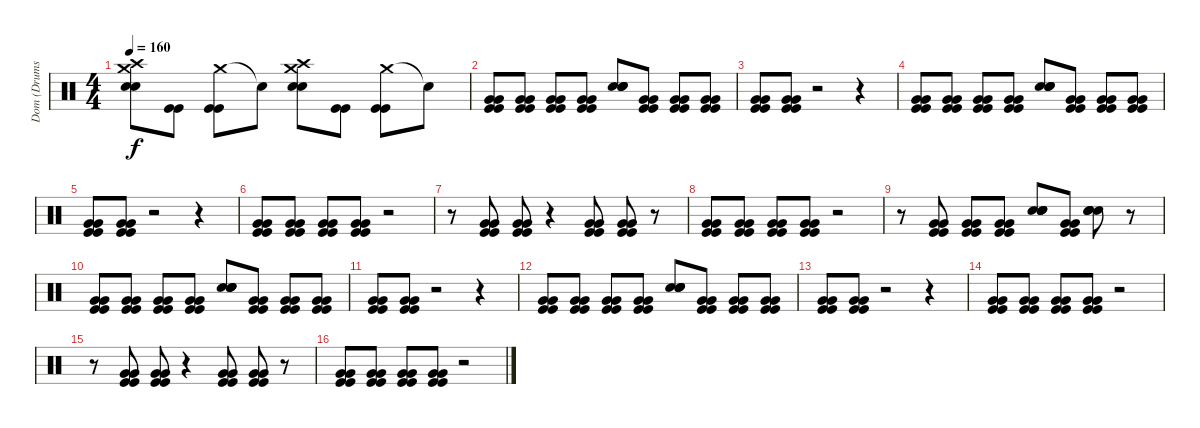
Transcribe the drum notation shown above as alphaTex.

\track ("Dom (Drums)" "Dom (Drums") {instrument percussion}
\staff {score}
\articulation defaults
\ts (4 4)
\tempo 160
\clef neutral
\ks c
("Crash medium (hit)" "Crash high (hit)" "Snare (hit) 2" "Snare (hit) 2").8{dy f} ("Kick (hit)" "Kick (hit)").8 ("Crash medium (hit)" "Kick (hit)" "Kick (hit)").8 "Snare (hit)"{t}.8 ("Crash medium (hit)" "Crash high (hit)" "Snare (hit) 2" "Snare (hit) 2").8 ("Kick (hit)" "Kick (hit)").8 ("Crash medium (hit)" "Kick (hit)" "Kick (hit)").8 "Snare (hit)"{t}.8 |
("Very Low Tom (hit)" "Very Low Tom (hit)" "Kick (hit)" "Kick (hit)").8{volume 10} ("Very Low Tom (hit)" "Very Low Tom (hit)" "Kick (hit)" "Kick (hit)").8 ("Very Low Tom (hit)" "Very Low Tom (hit)" "Kick (hit)" "Kick (hit)").8 ("Very Low Tom (hit)" "Very Low Tom (hit)" "Kick (hit)" "Kick (hit)").8 ("Snare (hit) 2" "Snare (hit) 2" "Snare (hit) 2" "Snare (hit) 2").8 ("Very Low Tom (hit)" "Very Low Tom (hit)" "Kick (hit)" "Kick (hit)").8 ("Very Low Tom (hit)" "Very Low Tom (hit)" "Kick (hit)" "Kick (hit)").8 ("Very Low Tom (hit)" "Very Low Tom (hit)" "Kick (hit)" "Kick (hit)").8 |
("Very Low Tom (hit)" "Very Low Tom (hit)" "Kick (hit)" "Kick (hit)").8 ("Very Low Tom (hit)" "Very Low Tom (hit)" "Kick (hit)" "Kick (hit)").8 r.2 r.4 |
("Very Low Tom (hit)" "Very Low Tom (hit)" "Kick (hit)" "Kick (hit)").8 ("Very Low Tom (hit)" "Very Low Tom (hit)" "Kick (hit)" "Kick (hit)").8 ("Very Low Tom (hit)" "Very Low Tom (hit)" "Kick (hit)" "Kick (hit)").8 ("Very Low Tom (hit)" "Very Low Tom (hit)" "Kick (hit)" "Kick (hit)").8 ("Snare (hit) 2" "Snare (hit) 2" "Snare (hit) 2" "Snare (hit) 2").8 ("Very Low Tom (hit)" "Very Low Tom (hit)" "Kick (hit)" "Kick (hit)").8 ("Very Low Tom (hit)" "Very Low Tom (hit)" "Kick (hit)" "Kick (hit)").8 ("Very Low Tom (hit)" "Very Low Tom (hit)" "Kick (hit)" "Kick (hit)").8 |
("Very Low Tom (hit)" "Very Low Tom (hit)" "Kick (hit)" "Kick (hit)").8 ("Very Low Tom (hit)" "Very Low Tom (hit)" "Kick (hit)" "Kick (hit)").8 r.2 r.4 |
("Very Low Tom (hit)" "Very Low Tom (hit)" "Kick (hit)" "Kick (hit)").8 ("Very Low Tom (hit)" "Very Low Tom (hit)" "Kick (hit)" "Kick (hit)").8 ("Very Low Tom (hit)" "Very Low Tom (hit)" "Kick (hit)" "Kick (hit)").8 ("Very Low Tom (hit)" "Very Low Tom (hit)" "Kick (hit)" "Kick (hit)").8 r.2 |
r.8 ("Very Low Tom (hit)" "Very Low Tom (hit)" "Kick (hit)" "Kick (hit)").8 ("Very Low Tom (hit)" "Very Low Tom (hit)" "Kick (hit)" "Kick (hit)").8 r.4 ("Very Low Tom (hit)" "Very Low Tom (hit)" "Kick (hit)" "Kick (hit)").8 ("Very Low Tom (hit)" "Very Low Tom (hit)" "Kick (hit)" "Kick (hit)").8 r.8 |
("Very Low Tom (hit)" "Very Low Tom (hit)" "Kick (hit)" "Kick (hit)").8 ("Very Low Tom (hit)" "Very Low Tom (hit)" "Kick (hit)" "Kick (hit)").8 ("Very Low Tom (hit)" "Very Low Tom (hit)" "Kick (hit)" "Kick (hit)").8 ("Very Low Tom (hit)" "Very Low Tom (hit)" "Kick (hit)" "Kick (hit)").8 r.2 |
r.8 ("Very Low Tom (hit)" "Very Low Tom (hit)" "Kick (hit)" "Kick (hit)").8 ("Very Low Tom (hit)" "Very Low Tom (hit)" "Kick (hit)" "Kick (hit)").8 ("Very Low Tom (hit)" "Very Low Tom (hit)" "Kick (hit)" "Kick (hit)").8 ("Snare (hit) 2" "Snare (hit) 2" "Snare (hit) 2" "Snare (hit) 2").8 ("Very Low Tom (hit)" "Very Low Tom (hit)" "Kick (hit)" "Kick (hit)").8 ("Snare (hit) 2" "Snare (hit) 2" "Snare (hit) 2" "Snare (hit) 2").8 r.8 |
("Very Low Tom (hit)" "Very Low Tom (hit)" "Kick (hit)" "Kick (hit)").8{volume 10} ("Very Low Tom (hit)" "Very Low Tom (hit)" "Kick (hit)" "Kick (hit)").8 ("Very Low Tom (hit)" "Very Low Tom (hit)" "Kick (hit)" "Kick (hit)").8 ("Very Low Tom (hit)" "Very Low Tom (hit)" "Kick (hit)" "Kick (hit)").8 ("Snare (hit) 2" "Snare (hit) 2" "Snare (hit) 2" "Snare (hit) 2").8 ("Very Low Tom (hit)" "Very Low Tom (hit)" "Kick (hit)" "Kick (hit)").8 ("Very Low Tom (hit)" "Very Low Tom (hit)" "Kick (hit)" "Kick (hit)").8 ("Very Low Tom (hit)" "Very Low Tom (hit)" "Kick (hit)" "Kick (hit)").8 |
("Very Low Tom (hit)" "Very Low Tom (hit)" "Kick (hit)" "Kick (hit)").8 ("Very Low Tom (hit)" "Very Low Tom (hit)" "Kick (hit)" "Kick (hit)").8 r.2 r.4 |
("Very Low Tom (hit)" "Very Low Tom (hit)" "Kick (hit)" "Kick (hit)").8 ("Very Low Tom (hit)" "Very Low Tom (hit)" "Kick (hit)" "Kick (hit)").8 ("Very Low Tom (hit)" "Very Low Tom (hit)" "Kick (hit)" "Kick (hit)").8 ("Very Low Tom (hit)" "Very Low Tom (hit)" "Kick (hit)" "Kick (hit)").8 ("Snare (hit) 2" "Snare (hit) 2" "Snare (hit) 2" "Snare (hit) 2").8 ("Very Low Tom (hit)" "Very Low Tom (hit)" "Kick (hit)" "Kick (hit)").8 ("Very Low Tom (hit)" "Very Low Tom (hit)" "Kick (hit)" "Kick (hit)").8 ("Very Low Tom (hit)" "Very Low Tom (hit)" "Kick (hit)" "Kick (hit)").8 |
("Very Low Tom (hit)" "Very Low Tom (hit)" "Kick (hit)" "Kick (hit)").8 ("Very Low Tom (hit)" "Very Low Tom (hit)" "Kick (hit)" "Kick (hit)").8 r.2 r.4 |
("Very Low Tom (hit)" "Very Low Tom (hit)" "Kick (hit)" "Kick (hit)").8 ("Very Low Tom (hit)" "Very Low Tom (hit)" "Kick (hit)" "Kick (hit)").8 ("Very Low Tom (hit)" "Very Low Tom (hit)" "Kick (hit)" "Kick (hit)").8 ("Very Low Tom (hit)" "Very Low Tom (hit)" "Kick (hit)" "Kick (hit)").8 r.2 |
r.8 ("Very Low Tom (hit)" "Very Low Tom (hit)" "Kick (hit)" "Kick (hit)").8 ("Very Low Tom (hit)" "Very Low Tom (hit)" "Kick (hit)" "Kick (hit)").8 r.4 ("Very Low Tom (hit)" "Very Low Tom (hit)" "Kick (hit)" "Kick (hit)").8 ("Very Low Tom (hit)" "Very Low Tom (hit)" "Kick (hit)" "Kick (hit)").8 r.8 |
("Very Low Tom (hit)" "Very Low Tom (hit)" "Kick (hit)" "Kick (hit)").8 ("Very Low Tom (hit)" "Very Low Tom (hit)" "Kick (hit)" "Kick (hit)").8 ("Very Low Tom (hit)" "Very Low Tom (hit)" "Kick (hit)" "Kick (hit)").8 ("Very Low Tom (hit)" "Very Low Tom (hit)" "Kick (hit)" "Kick (hit)").8 r.2
